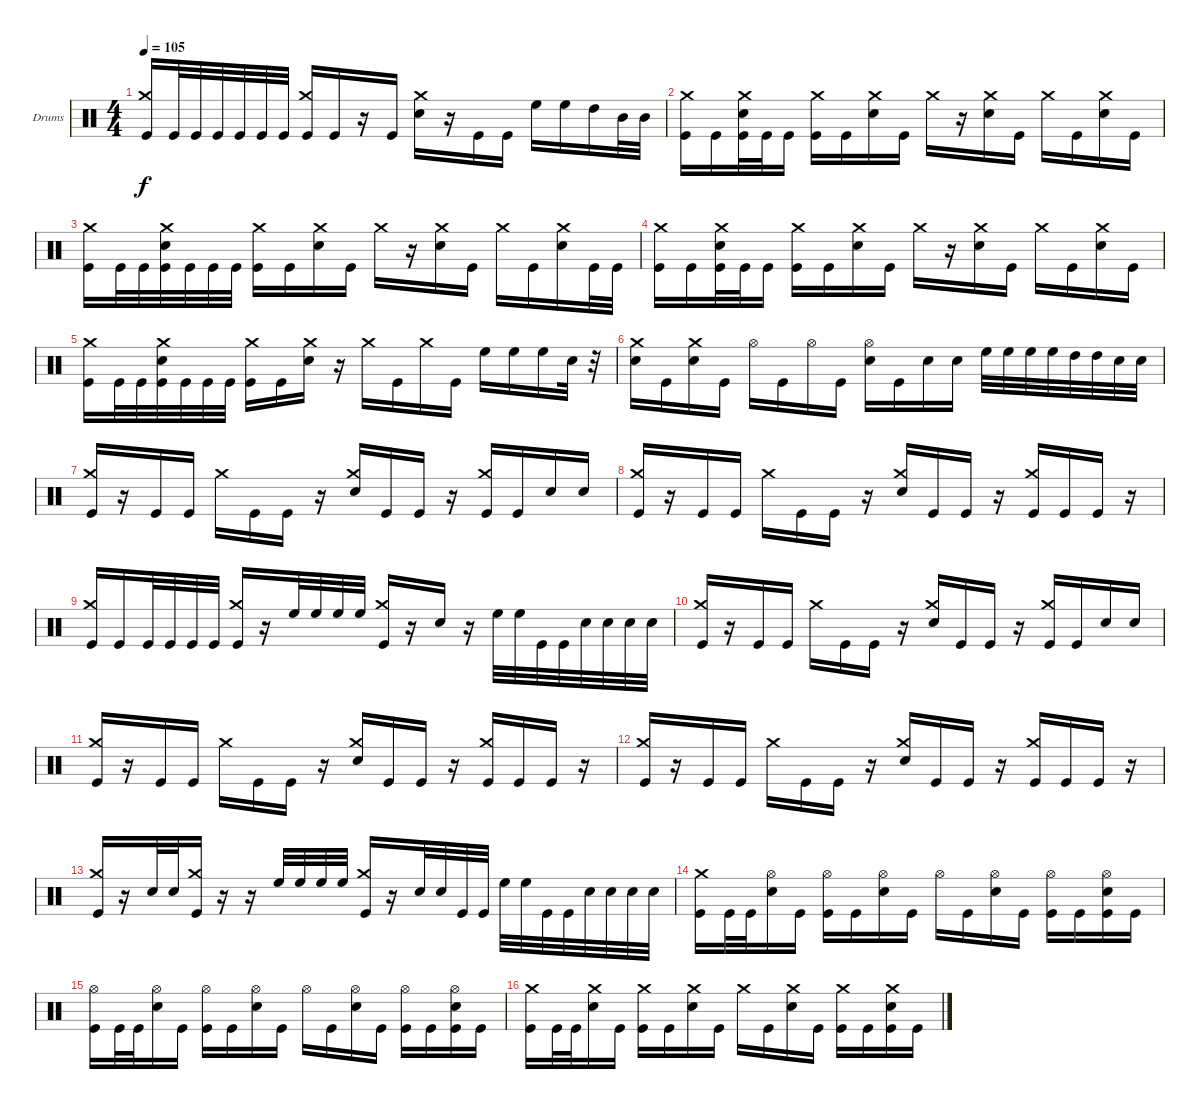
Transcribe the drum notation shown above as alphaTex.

\defaultSystemsLayout 4
\bracketExtendMode groupsimilarinstruments
\firstSystemTrackNameOrientation horizontal
\otherSystemsTrackNameOrientation horizontal
\track ("Drumkit" "Drums") {instrument percussion}
\staff {score}
\articulation defaults
\ts (4 4)
\tempo 105
\clef neutral
\ks c
("Crash medium (hit)" "Kick (hit)").16{dy f beam invert} "Kick (hit)".32 "Kick (hit)".32 "Kick (hit)".32 "Kick (hit)".32 "Kick (hit)".32 "Kick (hit)".32 ("Kick (hit)" "Crash medium (hit)").16{beam invert} "Kick (hit)".16 r.16 "Kick (hit)".16 ("Snare (hit) 2" "Crash medium (hit)").16 r.16 "Kick (hit)".16 "Kick (hit)".16 "High Floor Tom (hit)".16 "High Floor Tom (hit)".16 "High Tom (hit)".16 "Mid Tom (hit)".32 "Mid Tom (hit)".32 |
("Kick (hit)" "Crash medium (hit)").16 "Kick (hit)".16 ("Kick (hit)" "Snare (hit) 2" "Crash medium (hit)").32 "Kick (hit)".32 "Kick (hit)".16 ("Kick (hit)" "Crash medium (hit)").16 "Kick (hit)".16 ("Crash medium (hit)" "Snare (hit) 2").16 "Kick (hit)".16 "Crash medium (hit)".16 r.16 ("Crash medium (hit)" "Snare (hit) 2").16 "Kick (hit)".16 "Crash medium (hit)".16 "Kick (hit)".16 ("Crash medium (hit)" "Snare (hit) 2").16 "Kick (hit)".16 |
("Kick (hit)" "Crash medium (hit)").16 "Kick (hit)".32 "Kick (hit)".32 ("Kick (hit)" "Crash medium (hit)" "Snare (hit) 2").32 "Kick (hit)".32 "Kick (hit)".32 "Kick (hit)".32 ("Kick (hit)" "Crash medium (hit)").16 "Kick (hit)".16 ("Snare (hit) 2" "Crash medium (hit)").16 "Kick (hit)".16 "Crash medium (hit)".16 r.16 ("Crash medium (hit)" "Snare (hit) 2").16 "Kick (hit)".16 "Crash medium (hit)".16 "Kick (hit)".16 ("Snare (hit) 2" "Crash medium (hit)").16 "Kick (hit)".32 "Kick (hit)".32 |
("Kick (hit)" "Crash medium (hit)").16 "Kick (hit)".16 ("Kick (hit)" "Snare (hit) 2" "Crash medium (hit)").32 "Kick (hit)".32 "Kick (hit)".16 ("Kick (hit)" "Crash medium (hit)").16 "Kick (hit)".16 ("Crash medium (hit)" "Snare (hit) 2").16 "Kick (hit)".16 "Crash medium (hit)".16 r.16 ("Crash medium (hit)" "Snare (hit) 2").16 "Kick (hit)".16 "Crash medium (hit)".16 "Kick (hit)".16 ("Crash medium (hit)" "Snare (hit) 2").16 "Kick (hit)".16 |
("Kick (hit)" "Crash medium (hit)").16 "Kick (hit)".32 "Kick (hit)".32 ("Kick (hit)" "Crash medium (hit)" "Snare (hit) 2").32 "Kick (hit)".32 "Kick (hit)".32 "Kick (hit)".32 ("Kick (hit)" "Crash medium (hit)").16 "Kick (hit)".16 ("Snare (hit) 2" "Crash medium (hit)").16 r.16 "Crash medium (hit)".16 "Kick (hit)".16 "Crash medium (hit)".16 "Kick (hit)".16 "High Floor Tom (hit)".16 "High Floor Tom (hit)".16 "High Floor Tom (hit)".16 "Snare (hit) 2".32 r.32 |
("Crash medium (hit)" "Snare (hit) 2").16 "Kick (hit)".16 ("Crash medium (hit)" "Snare (hit) 2").16 "Kick (hit)".16 "Hi-Hat (open)".16 "Kick (hit)".16 "Hi-Hat (open)".16 "Kick (hit)".16 ("Hi-Hat (open)" "Snare (hit) 2").16 "Kick (hit)".16 "Snare (hit) 2".16 "Snare (hit) 2".16 "High Floor Tom (hit)".32 "High Floor Tom (hit)".32 "High Floor Tom (hit)".32 "High Floor Tom (hit)".32 "High Tom (hit)".32 "High Tom (hit)".32 "Snare (hit) 2".32 "Snare (hit) 2".32 |
("Crash medium (hit)" "Kick (hit)").16{beam invert} r.16 "Kick (hit)".16 "Kick (hit)".16 "Crash medium (hit)".16 "Kick (hit)".16 "Kick (hit)".16 r.16 ("Snare (hit) 2" "Crash medium (hit)").16 "Kick (hit)".16 "Kick (hit)".16 r.16 ("Crash medium (hit)" "Kick (hit)").16{beam invert} "Kick (hit)".16 "Snare (hit) 2".16 "Snare (hit) 2".16 |
("Crash medium (hit)" "Kick (hit)").16{beam invert} r.16 "Kick (hit)".16 "Kick (hit)".16 "Crash medium (hit)".16 "Kick (hit)".16 "Kick (hit)".16 r.16 ("Snare (hit) 2" "Crash medium (hit)").16 "Kick (hit)".16 "Kick (hit)".16 r.16 ("Crash medium (hit)" "Kick (hit)").16{beam invert} "Kick (hit)".16 "Kick (hit)".16 r.16 |
("Kick (hit)" "Crash medium (hit)").16{beam invert} "Kick (hit)".16 "Kick (hit)".32 "Kick (hit)".32 "Kick (hit)".32 "Kick (hit)".32 ("Kick (hit)" "Crash medium (hit)").16{beam invert} r.16 "High Floor Tom (hit)".32 "High Floor Tom (hit)".32 "High Floor Tom (hit)".32 "High Floor Tom (hit)".32 ("Crash medium (hit)" "Kick (hit)").16 r.16 "Snare (hit) 2".16 r.16 "High Floor Tom (hit)".32{beam invert} "High Floor Tom (hit)".32 "Kick (hit)".32 "Kick (hit)".32 "Snare (hit) 2".32 "Snare (hit) 2".32 "Snare (hit) 2".32 "Snare (hit) 2".32 |
("Crash medium (hit)" "Kick (hit)").16{beam invert} r.16 "Kick (hit)".16 "Kick (hit)".16 "Crash medium (hit)".16 "Kick (hit)".16 "Kick (hit)".16 r.16 ("Snare (hit) 2" "Crash medium (hit)").16 "Kick (hit)".16 "Kick (hit)".16 r.16 ("Crash medium (hit)" "Kick (hit)").16{beam invert} "Kick (hit)".16 "Snare (hit) 2".16 "Snare (hit) 2".16 |
("Crash medium (hit)" "Kick (hit)").16{beam invert} r.16 "Kick (hit)".16 "Kick (hit)".16 "Crash medium (hit)".16 "Kick (hit)".16 "Kick (hit)".16 r.16 ("Snare (hit) 2" "Crash medium (hit)").16 "Kick (hit)".16 "Kick (hit)".16 r.16 ("Crash medium (hit)" "Kick (hit)").16{beam invert} "Kick (hit)".16 "Kick (hit)".16 r.16 |
("Crash medium (hit)" "Kick (hit)").16{beam invert} r.16 "Kick (hit)".16 "Kick (hit)".16 "Crash medium (hit)".16 "Kick (hit)".16 "Kick (hit)".16 r.16 ("Snare (hit) 2" "Crash medium (hit)").16 "Kick (hit)".16 "Kick (hit)".16 r.16 ("Crash medium (hit)" "Kick (hit)").16{beam invert} "Kick (hit)".16 "Kick (hit)".16 r.16 |
("Kick (hit)" "Crash medium (hit)").16{beam invert} r.16 "Snare (hit) 2".32 "Snare (hit) 2".32 ("Crash medium (hit)" "Kick (hit)").16 r.16 r.16 "High Floor Tom (hit)".32 "High Floor Tom (hit)".32 "High Floor Tom (hit)".32 "High Floor Tom (hit)".32 ("Crash medium (hit)" "Kick (hit)").16{beam invert} r.16 "Snare (hit) 2".32 "Snare (hit) 2".32 "Kick (hit)".32 "Kick (hit)".32 "High Floor Tom (hit)".32{beam invert} "High Floor Tom (hit)".32 "Kick (hit)".32 "Kick (hit)".32 "Snare (hit) 2".32 "Snare (hit) 2".32 "Snare (hit) 2".32 "Snare (hit) 2".32 |
("Kick (hit)" "Crash medium (hit)").16 "Kick (hit)".32 "Kick (hit)".32 ("Snare (hit) 2" "Hi-Hat (open)").16 "Kick (hit)".16 ("Hi-Hat (open)" "Kick (hit)").16 "Kick (hit)".16 ("Snare (hit) 2" "Hi-Hat (open)").16 "Kick (hit)".16 "Hi-Hat (open)".16 "Kick (hit)".16 ("Snare (hit) 2" "Hi-Hat (open)").16 "Kick (hit)".16 ("Kick (hit)" "Hi-Hat (open)").16 "Kick (hit)".16 ("Kick (hit)" "Snare (hit) 2" "Hi-Hat (open)").16 "Kick (hit)".16 |
("Kick (hit)" "Hi-Hat (open)").16 "Kick (hit)".32 "Kick (hit)".32 ("Snare (hit) 2" "Hi-Hat (open)").16 "Kick (hit)".16 ("Hi-Hat (open)" "Kick (hit)").16 "Kick (hit)".16 ("Snare (hit) 2" "Hi-Hat (open)").16 "Kick (hit)".16 "Hi-Hat (open)".16 "Kick (hit)".16 ("Snare (hit) 2" "Hi-Hat (open)").16 "Kick (hit)".16 ("Kick (hit)" "Hi-Hat (open)").16 "Kick (hit)".16 ("Kick (hit)" "Snare (hit) 2" "Hi-Hat (open)").16 "Kick (hit)".16 |
("Kick (hit)" "Crash medium (hit)").16 "Kick (hit)".32 "Kick (hit)".32 ("Snare (hit) 2" "Crash medium (hit)").16 "Kick (hit)".16 ("Kick (hit)" "Crash medium (hit)").16 "Kick (hit)".16 ("Snare (hit) 2" "Crash medium (hit)").16 "Kick (hit)".16 "Crash medium (hit)".16 "Kick (hit)".16 ("Snare (hit) 2" "Crash medium (hit)").16 "Kick (hit)".16 ("Kick (hit)" "Crash medium (hit)").16 "Kick (hit)".16 ("Kick (hit)" "Snare (hit) 2" "Crash medium (hit)").16 "Kick (hit)".16
